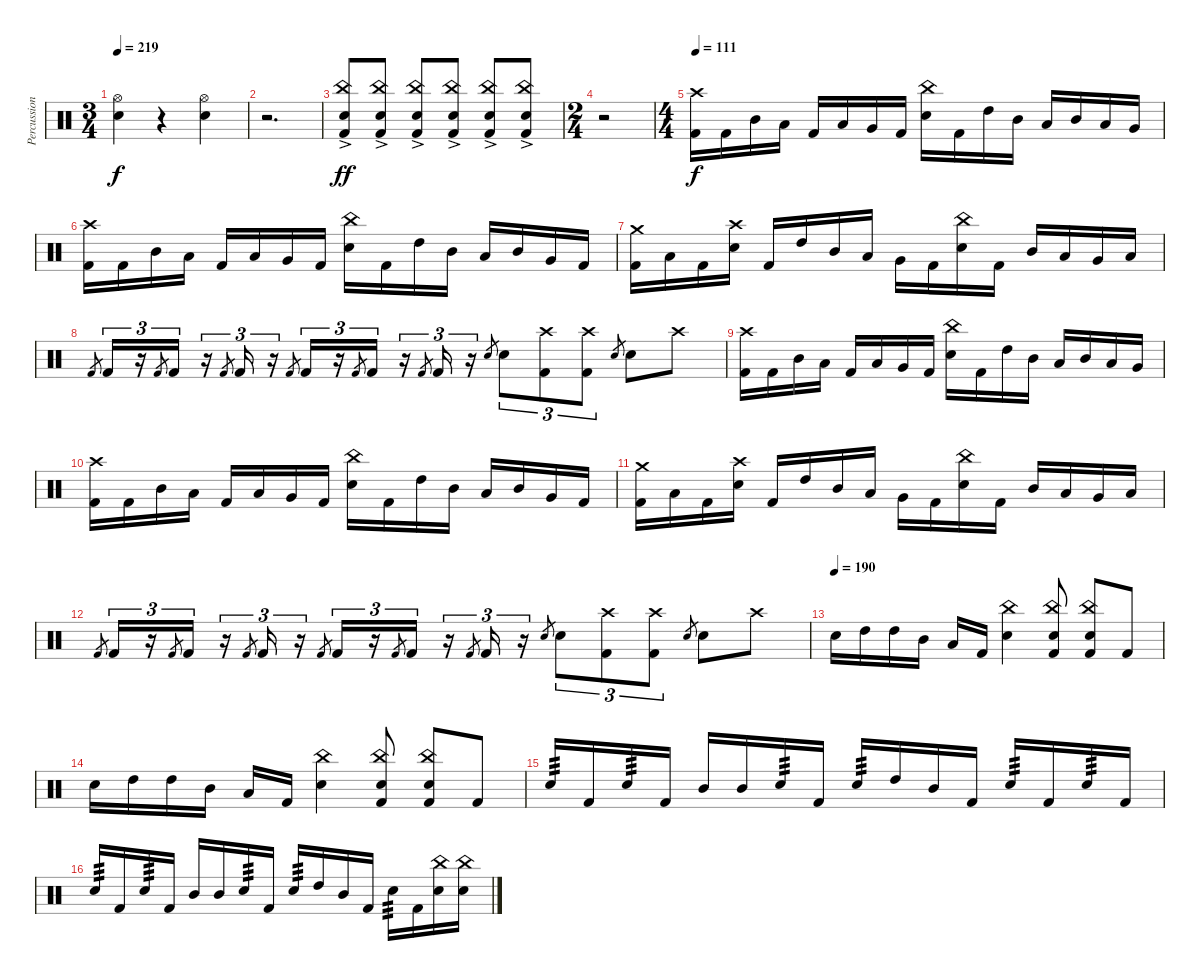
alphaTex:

\track ("Percussion" "Percussion") {instrument percussion}
\staff {score}
\articulation defaults
\ts (3 4)
\tempo 219
\clef neutral
\ks c
("Hi-Hat (open)" "Electric Snare (hit)").4{dy f volume 13} r.4 ("Hi-Hat (open)" "Electric Snare (hit)").4 |
r.2{d} |
("China (hit)"{ac} "Electric Snare (hit)"{ac} "Kick (hit) 2"{ac}).8{dy ff} ("China (hit)"{ac} "Electric Snare (hit)"{ac} "Kick (hit) 2"{ac}).8 ("China (hit)"{ac} "Electric Snare (hit)"{ac} "Kick (hit) 2"{ac}).8 ("China (hit)"{ac} "Electric Snare (hit)"{ac} "Kick (hit) 2"{ac}).8 ("China (hit)"{ac} "Electric Snare (hit)"{ac} "Kick (hit) 2"{ac}).8 ("China (hit)"{ac} "Electric Snare (hit)"{ac} "Kick (hit) 2"{ac}).8 |
\ts (2 4)
r.2 |
\ts (4 4)
\tempo 111
("Crash high (hit)" "Kick (hit) 2").16{dy f} "Kick (hit) 2".16 "Mid Tom (hit)".16 "Low Tom (hit)".16 "Kick (hit) 2".16 "Low Tom (hit)".16 "Very Low Tom (hit)".16 "Kick (hit) 2".16 ("China (hit)" "Electric Snare (hit)").16 "Kick (hit) 2".16 "High Tom (hit)".16 "Mid Tom (hit)".16 "Low Tom (hit)".16 "Mid Tom (hit)".16 "Low Tom (hit)".16 "Very Low Tom (hit)".16 |
("Crash high (hit)" "Kick (hit) 2").16 "Kick (hit) 2".16 "Mid Tom (hit)".16 "Low Tom (hit)".16 "Kick (hit) 2".16 "Low Tom (hit)".16 "Very Low Tom (hit)".16 "Kick (hit) 2".16 ("China (hit)" "Electric Snare (hit)").16 "Kick (hit) 2".16 "High Tom (hit)".16 "Mid Tom (hit)".16 "Low Tom (hit)".16 "Mid Tom (hit)".16 "Very Low Tom (hit)".16 "Kick (hit) 2".16 |
("Crash medium (hit)" "Kick (hit) 2").16 "Low Tom (hit)".16 "Kick (hit) 2".16 ("Electric Snare (hit)" "Crash high (hit)").16 "Kick (hit) 2".16 "High Tom (hit)".16 "Mid Tom (hit)".16 "Low Tom (hit)".16 "Very Low Tom (hit)".16 "Kick (hit) 2".16 ("Electric Snare (hit)" "China (hit)").16 "Kick (hit) 2".16 "Mid Tom (hit)".16 "Low Tom (hit)".16 "Very Low Tom (hit)".16 "Low Floor Tom (hit)".16 |
"Kick (hit) 2".8{gr} "Kick (hit) 2".16{tu (3 2)} r.16{tu (3 2)} "Kick (hit) 2".8{gr} "Kick (hit) 2".16{tu (3 2)} r.16{tu (3 2)} "Kick (hit) 2".8{gr} "Kick (hit) 2".16{tu (3 2)} r.16{tu (3 2)} "Kick (hit) 2".8{gr} "Kick (hit) 2".16{tu (3 2)} r.16{tu (3 2)} "Kick (hit) 2".8{gr} "Kick (hit) 2".16{tu (3 2)} r.16{tu (3 2)} "Kick (hit) 2".8{gr} "Kick (hit) 2".16{tu (3 2)} r.16{tu (3 2)} "Electric Snare (hit)".8{gr} "Electric Snare (hit)".8{tu (3 2)} ("Crash high (hit)" "Kick (hit) 2").8{tu (3 2)} ("Crash high (hit)" "Kick (hit) 2").8{tu (3 2)} "Electric Snare (hit)".8{gr} "Electric Snare (hit)".8 "Crash high (hit)".8 |
("Crash high (hit)" "Kick (hit) 2").16 "Kick (hit) 2".16 "Mid Tom (hit)".16 "Low Tom (hit)".16 "Kick (hit) 2".16 "Low Tom (hit)".16 "Very Low Tom (hit)".16 "Kick (hit) 2".16 ("China (hit)" "Electric Snare (hit)").16 "Kick (hit) 2".16 "High Tom (hit)".16 "Mid Tom (hit)".16 "Low Tom (hit)".16 "Mid Tom (hit)".16 "Low Tom (hit)".16 "Very Low Tom (hit)".16 |
("Crash high (hit)" "Kick (hit) 2").16 "Kick (hit) 2".16 "Mid Tom (hit)".16 "Low Tom (hit)".16 "Kick (hit) 2".16 "Low Tom (hit)".16 "Very Low Tom (hit)".16 "Kick (hit) 2".16 ("China (hit)" "Electric Snare (hit)").16 "Kick (hit) 2".16 "High Tom (hit)".16 "Mid Tom (hit)".16 "Low Tom (hit)".16 "Mid Tom (hit)".16 "Very Low Tom (hit)".16 "Kick (hit) 2".16 |
("Crash medium (hit)" "Kick (hit) 2").16 "Low Tom (hit)".16 "Kick (hit) 2".16 ("Electric Snare (hit)" "Crash high (hit)").16 "Kick (hit) 2".16 "High Tom (hit)".16 "Mid Tom (hit)".16 "Low Tom (hit)".16 "Very Low Tom (hit)".16 "Kick (hit) 2".16 ("Electric Snare (hit)" "China (hit)").16 "Kick (hit) 2".16 "Mid Tom (hit)".16 "Low Tom (hit)".16 "Very Low Tom (hit)".16 "Low Floor Tom (hit)".16 |
"Kick (hit) 2".8{gr} "Kick (hit) 2".16{tu (3 2)} r.16{tu (3 2)} "Kick (hit) 2".8{gr} "Kick (hit) 2".16{tu (3 2)} r.16{tu (3 2)} "Kick (hit) 2".8{gr} "Kick (hit) 2".16{tu (3 2)} r.16{tu (3 2)} "Kick (hit) 2".8{gr} "Kick (hit) 2".16{tu (3 2)} r.16{tu (3 2)} "Kick (hit) 2".8{gr} "Kick (hit) 2".16{tu (3 2)} r.16{tu (3 2)} "Kick (hit) 2".8{gr} "Kick (hit) 2".16{tu (3 2)} r.16{tu (3 2)} "Electric Snare (hit)".8{gr} "Electric Snare (hit)".8{tu (3 2)} ("Crash high (hit)" "Kick (hit) 2").8{tu (3 2)} ("Crash high (hit)" "Kick (hit) 2").8{tu (3 2)} "Electric Snare (hit)".8{gr} "Electric Snare (hit)".8 "Crash high (hit)".8 |
\tempo (190)
"Electric Snare (hit)".16 "High Tom (hit)".16 "High Tom (hit)".16 "Mid Tom (hit)".16 "Low Tom (hit)".16 "Kick (hit) 2".16 ("China (hit)" "Electric Snare (hit)").4 ("China (hit)" "Electric Snare (hit)" "Kick (hit) 2").8 ("China (hit)" "Electric Snare (hit)" "Kick (hit) 2").8 "Kick (hit) 2".8 |
"Electric Snare (hit)".16 "High Tom (hit)".16 "High Tom (hit)".16 "Mid Tom (hit)".16 "Low Tom (hit)".16 "Kick (hit) 2".16 ("China (hit)" "Electric Snare (hit)").4 ("China (hit)" "Electric Snare (hit)" "Kick (hit) 2").8 ("China (hit)" "Electric Snare (hit)" "Kick (hit) 2").8 "Kick (hit) 2".8 |
"Electric Snare (hit)".16{tp 3} "Kick (hit) 2".16 "Electric Snare (hit)".16{tp 3} "Kick (hit) 2".16 "Mid Tom (hit)".16 "Mid Tom (hit)".16 "Electric Snare (hit)".16{tp 3} "Kick (hit) 2".16 "Electric Snare (hit)".16{tp 3} "High Tom (hit)".16 "Mid Tom (hit)".16 "Kick (hit) 2".16 "Electric Snare (hit)".16{tp 3} "Kick (hit) 2".16 "Electric Snare (hit)".16{tp 3} "Kick (hit) 2".16 |
"Electric Snare (hit)".16{tp 3} "Kick (hit) 2".16 "Electric Snare (hit)".16{tp 3} "Kick (hit) 2".16 "Mid Tom (hit)".16 "Mid Tom (hit)".16 "Electric Snare (hit)".16{tp 3} "Kick (hit) 2".16 "Electric Snare (hit)".16{tp 3} "High Tom (hit)".16 "Mid Tom (hit)".16 "Kick (hit) 2".16 "Electric Snare (hit)".16{tp 3} "Kick (hit) 2".16 ("Electric Snare (hit)" "China (hit)").16 ("Electric Snare (hit)" "China (hit)").16
